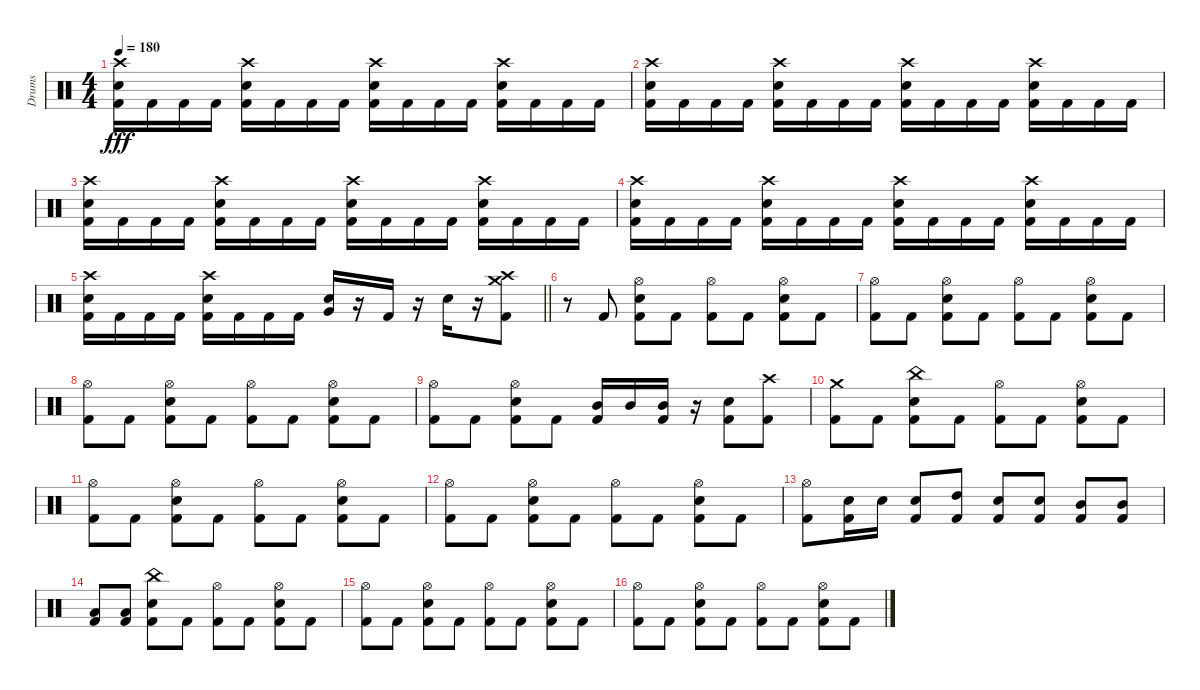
\track ("Drums" "Drums") {instrument percussion}
\staff {score}
\articulation defaults
\ts (4 4)
\tempo 180
\clef neutral
\ks c
("Crash high (hit)" "Electric Snare (hit)" "Kick (hit) 2").16{dy fff} "Kick (hit) 2".16 "Kick (hit) 2".16 "Kick (hit) 2".16 ("Crash high (hit)" "Electric Snare (hit)" "Kick (hit) 2").16 "Kick (hit) 2".16 "Kick (hit) 2".16 "Kick (hit) 2".16 ("Crash high (hit)" "Electric Snare (hit)" "Kick (hit) 2").16 "Kick (hit) 2".16 "Kick (hit) 2".16 "Kick (hit) 2".16 ("Crash high (hit)" "Electric Snare (hit)" "Kick (hit) 2").16 "Kick (hit) 2".16 "Kick (hit) 2".16 "Kick (hit) 2".16 |
("Crash high (hit)" "Electric Snare (hit)" "Kick (hit) 2").16 "Kick (hit) 2".16 "Kick (hit) 2".16 "Kick (hit) 2".16 ("Crash high (hit)" "Electric Snare (hit)" "Kick (hit) 2").16 "Kick (hit) 2".16 "Kick (hit) 2".16 "Kick (hit) 2".16 ("Crash high (hit)" "Electric Snare (hit)" "Kick (hit) 2").16 "Kick (hit) 2".16 "Kick (hit) 2".16 "Kick (hit) 2".16 ("Crash high (hit)" "Electric Snare (hit)" "Kick (hit) 2").16 "Kick (hit) 2".16 "Kick (hit) 2".16 "Kick (hit) 2".16 |
("Crash high (hit)" "Electric Snare (hit)" "Kick (hit) 2").16 "Kick (hit) 2".16 "Kick (hit) 2".16 "Kick (hit) 2".16 ("Crash high (hit)" "Electric Snare (hit)" "Kick (hit) 2").16 "Kick (hit) 2".16 "Kick (hit) 2".16 "Kick (hit) 2".16 ("Crash high (hit)" "Electric Snare (hit)" "Kick (hit) 2").16 "Kick (hit) 2".16 "Kick (hit) 2".16 "Kick (hit) 2".16 ("Crash high (hit)" "Electric Snare (hit)" "Kick (hit) 2").16 "Kick (hit) 2".16 "Kick (hit) 2".16 "Kick (hit) 2".16 |
("Crash high (hit)" "Electric Snare (hit)" "Kick (hit) 2").16 "Kick (hit) 2".16 "Kick (hit) 2".16 "Kick (hit) 2".16 ("Crash high (hit)" "Electric Snare (hit)" "Kick (hit) 2").16 "Kick (hit) 2".16 "Kick (hit) 2".16 "Kick (hit) 2".16 ("Crash high (hit)" "Electric Snare (hit)" "Kick (hit) 2").16 "Kick (hit) 2".16 "Kick (hit) 2".16 "Kick (hit) 2".16 ("Crash high (hit)" "Electric Snare (hit)" "Kick (hit) 2").16 "Kick (hit) 2".16 "Kick (hit) 2".16 "Kick (hit) 2".16 |
\barLineRight lightlight
("Crash high (hit)" "Electric Snare (hit)" "Kick (hit) 2").16 "Kick (hit) 2".16 "Kick (hit) 2".16 "Kick (hit) 2".16 ("Crash high (hit)" "Electric Snare (hit)" "Kick (hit) 2").16 "Kick (hit) 2".16 "Kick (hit) 2".16 "Kick (hit) 2".16 ("Very Low Tom (hit)" "Electric Snare (hit)").16 r.16 "Kick (hit) 2".16 r.16 "Electric Snare (hit)".16 r.16 ("Crash high (hit)" "Crash medium (hit)" "Kick (hit) 2").8 |
r.8 "Kick (hit) 2".8 ("Hi-Hat (open)" "Electric Snare (hit)" "Kick (hit) 2").8 "Kick (hit) 2".8 ("Hi-Hat (open)" "Kick (hit) 2").8 "Kick (hit) 2".8 ("Hi-Hat (open)" "Electric Snare (hit)" "Kick (hit) 2").8 "Kick (hit) 2".8 |
("Hi-Hat (open)" "Kick (hit) 2").8 "Kick (hit) 2".8 ("Hi-Hat (open)" "Electric Snare (hit)" "Kick (hit) 2").8 "Kick (hit) 2".8 ("Hi-Hat (open)" "Kick (hit) 2").8 "Kick (hit) 2".8 ("Hi-Hat (open)" "Electric Snare (hit)" "Kick (hit) 2").8 "Kick (hit) 2".8 |
("Hi-Hat (open)" "Kick (hit) 2").8 "Kick (hit) 2".8 ("Hi-Hat (open)" "Electric Snare (hit)" "Kick (hit) 2").8 "Kick (hit) 2".8 ("Hi-Hat (open)" "Kick (hit) 2").8 "Kick (hit) 2".8 ("Hi-Hat (open)" "Electric Snare (hit)" "Kick (hit) 2").8 "Kick (hit) 2".8 |
("Hi-Hat (open)" "Kick (hit) 2").8 "Kick (hit) 2".8 ("Hi-Hat (open)" "Electric Snare (hit)" "Kick (hit) 2").8 "Kick (hit) 2".8 ("Mid Tom (hit)" "Kick (hit) 2").16 "Mid Tom (hit)".16 ("Mid Tom (hit)" "Kick (hit) 2").16 r.16 ("Electric Snare (hit)" "Kick (hit) 2").8 ("Crash high (hit)" "Kick (hit) 2").8 |
("Crash medium (hit)" "Kick (hit) 2").8 "Kick (hit) 2".8 ("China (hit)" "Electric Snare (hit)" "Kick (hit) 2").8 "Kick (hit) 2".8 ("Hi-Hat (open)" "Kick (hit) 2").8 "Kick (hit) 2".8 ("Hi-Hat (open)" "Electric Snare (hit)" "Kick (hit) 2").8 "Kick (hit) 2".8 |
("Hi-Hat (open)" "Kick (hit) 2").8 "Kick (hit) 2".8 ("Hi-Hat (open)" "Electric Snare (hit)" "Kick (hit) 2").8 "Kick (hit) 2".8 ("Hi-Hat (open)" "Kick (hit) 2").8 "Kick (hit) 2".8 ("Hi-Hat (open)" "Electric Snare (hit)" "Kick (hit) 2").8 "Kick (hit) 2".8 |
("Hi-Hat (open)" "Kick (hit) 2").8 "Kick (hit) 2".8 ("Hi-Hat (open)" "Electric Snare (hit)" "Kick (hit) 2").8 "Kick (hit) 2".8 ("Hi-Hat (open)" "Kick (hit) 2").8 "Kick (hit) 2".8 ("Hi-Hat (open)" "Electric Snare (hit)" "Kick (hit) 2").8 "Kick (hit) 2".8 |
("Hi-Hat (open)" "Kick (hit) 2").8 ("Electric Snare (hit)" "Kick (hit) 2").16 "Electric Snare (hit)".16 ("Electric Snare (hit)" "Kick (hit) 2").8 ("High Tom (hit)" "Kick (hit) 2").8 ("Electric Snare (hit)" "Kick (hit) 2").8 ("Electric Snare (hit)" "Kick (hit) 2").8 ("Mid Tom (hit)" "Kick (hit) 2").8 ("Mid Tom (hit)" "Kick (hit) 2").8 |
("Low Tom (hit)" "Kick (hit) 2").8 ("Low Tom (hit)" "Kick (hit) 2").8 ("China (hit)" "Electric Snare (hit)" "Kick (hit) 2").8 "Kick (hit) 2".8 ("Hi-Hat (open)" "Kick (hit) 2").8 "Kick (hit) 2".8 ("Hi-Hat (open)" "Electric Snare (hit)" "Kick (hit) 2").8 "Kick (hit) 2".8 |
("Hi-Hat (open)" "Kick (hit) 2").8 "Kick (hit) 2".8 ("Hi-Hat (open)" "Electric Snare (hit)" "Kick (hit) 2").8 "Kick (hit) 2".8 ("Hi-Hat (open)" "Kick (hit) 2").8 "Kick (hit) 2".8 ("Hi-Hat (open)" "Electric Snare (hit)" "Kick (hit) 2").8 "Kick (hit) 2".8 |
("Hi-Hat (open)" "Kick (hit) 2").8 "Kick (hit) 2".8 ("Hi-Hat (open)" "Electric Snare (hit)" "Kick (hit) 2").8 "Kick (hit) 2".8 ("Hi-Hat (open)" "Kick (hit) 2").8 "Kick (hit) 2".8 ("Hi-Hat (open)" "Electric Snare (hit)" "Kick (hit) 2").8 "Kick (hit) 2".8
